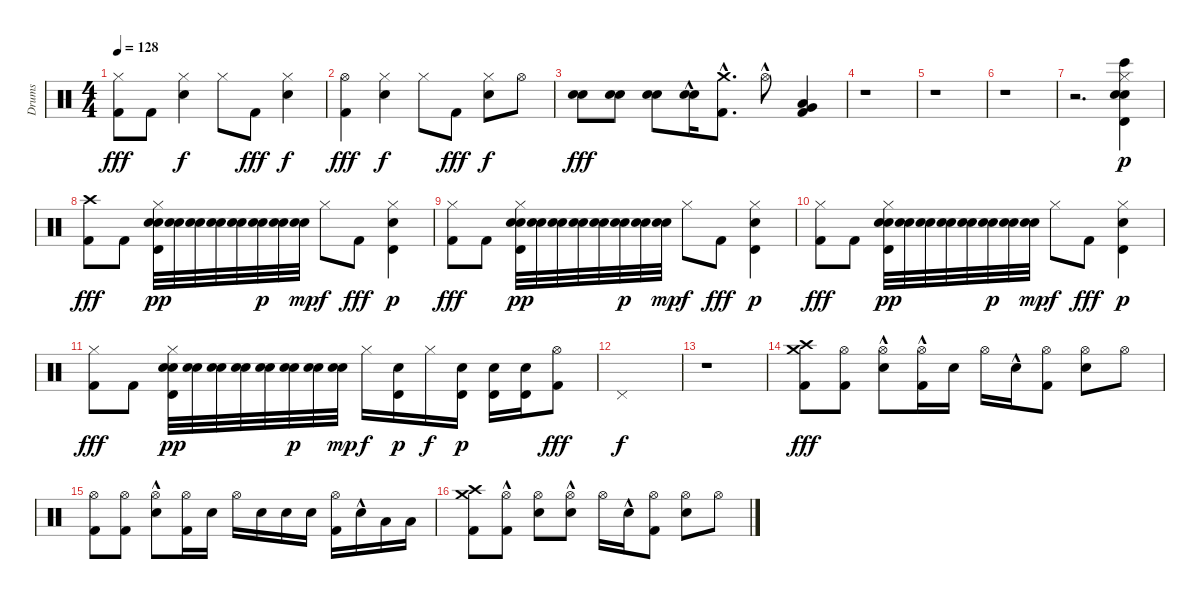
\track ("Drums" "Drums") {instrument percussion}
\staff {score}
\articulation defaults
\ts (4 4)
\tempo 128
\clef neutral
\ks c
("Hi-Hat (closed)" "Kick (hit) 2").8{dy fff} "Kick (hit) 2".8 ("Hi-Hat (closed)" "Snare (hit) 2").4{dy f} "Hi-Hat (closed)".8 "Kick (hit) 2".8{dy fff} ("Hi-Hat (closed)" "Snare (hit) 2").4{dy f} |
("Hi-Hat (open)" "Kick (hit) 2").4{dy fff} ("Hi-Hat (closed)" "Snare (hit) 2").4{dy f} "Hi-Hat (closed)".8 "Kick (hit) 2".8{dy fff} ("Hi-Hat (closed)" "Snare (hit) 2").8{dy f} "Hi-Hat (open)".8 |
("Snare (hit) 2" "Electric Snare (hit)").8{dy fff} ("Snare (hit) 2" "Electric Snare (hit)").8 ("Snare (hit) 2" "Electric Snare (hit)").8 ("Snare (hit) 2"{hac} "Electric Snare (hit)"{hac}).16 ("Crash medium (hit)"{hac} "Kick (hit) 2").8{d} "Hi-Hat (open)"{hac}.8{volume 16} ("Very Low Tom (hit)" "Low Floor Tom (hit)" "Kick (hit) 2").4 |
r.1 |
r.1 |
r.1 |
r.2{d} ("Hi-Hat (closed)" "Bongo High (hit)" "Snare (hit) 2" "Electric Snare (hit)" "Timbale high (hit)").4{dy p} |
("Crash high (hit)" "Kick (hit) 2").8{dy fff} "Kick (hit) 2".8 ("Hi-Hat (closed)" "Snare (hit) 2" "Timbale high (hit)" "Electric Snare (hit)").32{dy pp} ("Electric Snare (hit)" "Electric Snare (hit)").32 ("Electric Snare (hit)" "Electric Snare (hit)").32 ("Electric Snare (hit)" "Electric Snare (hit)").32 ("Electric Snare (hit)" "Electric Snare (hit)").32 ("Electric Snare (hit)" "Electric Snare (hit)").32{dy p} ("Electric Snare (hit)" "Electric Snare (hit)").32 ("Electric Snare (hit)" "Electric Snare (hit)").32{dy mp} "Hi-Hat (closed)".8{dy f} "Kick (hit) 2".8{dy fff} ("Hi-Hat (closed)" "Snare (hit) 2" "Timbale high (hit)").4{dy p} |
("Hi-Hat (closed)" "Kick (hit) 2").8{dy fff} "Kick (hit) 2".8 ("Hi-Hat (closed)" "Snare (hit) 2" "Timbale high (hit)" "Electric Snare (hit)").32{dy pp} ("Electric Snare (hit)" "Electric Snare (hit)").32 ("Electric Snare (hit)" "Electric Snare (hit)").32 ("Electric Snare (hit)" "Electric Snare (hit)").32 ("Electric Snare (hit)" "Electric Snare (hit)").32 ("Electric Snare (hit)" "Electric Snare (hit)").32{dy p} ("Electric Snare (hit)" "Electric Snare (hit)").32 ("Electric Snare (hit)" "Electric Snare (hit)").32{dy mp} "Hi-Hat (closed)".8{dy f} "Kick (hit) 2".8{dy fff} ("Hi-Hat (closed)" "Snare (hit) 2" "Timbale high (hit)").4{dy p} |
("Hi-Hat (closed)" "Kick (hit) 2").8{dy fff} "Kick (hit) 2".8 ("Hi-Hat (closed)" "Snare (hit) 2" "Timbale high (hit)" "Electric Snare (hit)").32{dy pp} ("Electric Snare (hit)" "Electric Snare (hit)").32 ("Electric Snare (hit)" "Electric Snare (hit)").32 ("Electric Snare (hit)" "Electric Snare (hit)").32 ("Electric Snare (hit)" "Electric Snare (hit)").32 ("Electric Snare (hit)" "Electric Snare (hit)").32{dy p} ("Electric Snare (hit)" "Electric Snare (hit)").32 ("Electric Snare (hit)" "Electric Snare (hit)").32{dy mp} "Hi-Hat (closed)".8{dy f} "Kick (hit) 2".8{dy fff} ("Hi-Hat (closed)" "Snare (hit) 2" "Timbale high (hit)").4{dy p} |
("Hi-Hat (closed)" "Kick (hit) 2").8{dy fff} "Kick (hit) 2".8 ("Hi-Hat (closed)" "Snare (hit) 2" "Timbale high (hit)" "Electric Snare (hit)").32{dy pp} ("Electric Snare (hit)" "Electric Snare (hit)").32 ("Electric Snare (hit)" "Electric Snare (hit)").32 ("Electric Snare (hit)" "Electric Snare (hit)").32 ("Electric Snare (hit)" "Electric Snare (hit)").32 ("Electric Snare (hit)" "Electric Snare (hit)").32{dy p} ("Electric Snare (hit)" "Electric Snare (hit)").32 ("Electric Snare (hit)" "Electric Snare (hit)").32{dy mp} "Hi-Hat (closed)".16{dy f} ("Snare (hit) 2" "Timbale high (hit)").16{dy p} "Hi-Hat (closed)".16{dy f} ("Snare (hit) 2" "Timbale high (hit)").16{dy p} ("Snare (hit) 2" "Timbale high (hit)").16 ("Snare (hit) 2" "Timbale high (hit)").16 ("Hi-Hat (open)" "Kick (hit) 2").8{dy fff} |
"Pedal Hi-Hat (hit)".1{dy f} |
r.1 |
("Crash high (hit)" "Crash medium (hit)" "Kick (hit) 2").8{dy fff} ("Hi-Hat (open)" "Kick (hit) 2").8 ("Hi-Hat (open)" "Snare (hit) 2"{hac}).8 ("Hi-Hat (open)" "Kick (hit) 2"{hac}).16 "Snare (hit) 2".16 "Hi-Hat (open)".16 "Snare (hit) 2"{hac}.16 ("Hi-Hat (open)" "Kick (hit) 2").8 ("Hi-Hat (open)" "Snare (hit) 2").8 "Hi-Hat (open)".8 |
("Hi-Hat (open)" "Kick (hit) 2").8 ("Hi-Hat (open)" "Kick (hit) 2").8 ("Hi-Hat (open)" "Snare (hit) 2"{hac}).8 ("Hi-Hat (open)" "Kick (hit) 2").16 "Snare (hit) 2".16 "Hi-Hat (open)".16 "Snare (hit) 2".16 "Snare (hit) 2".16 "Snare (hit) 2".16 ("Hi-Hat (open)" "Kick (hit) 2").16 "Snare (hit) 2"{hac}.16 "Low Tom (hit)".16 "Low Tom (hit)".16 |
("Crash high (hit)" "Crash medium (hit)" "Kick (hit) 2").8 ("Hi-Hat (open)" "Kick (hit) 2"{hac}).8 ("Hi-Hat (open)" "Snare (hit) 2").8 ("Hi-Hat (open)" "Snare (hit) 2"{hac}).8 "Hi-Hat (open)".16 "Snare (hit) 2"{hac}.16 ("Hi-Hat (open)" "Kick (hit) 2").8 ("Hi-Hat (open)" "Snare (hit) 2").8 "Hi-Hat (open)".8
